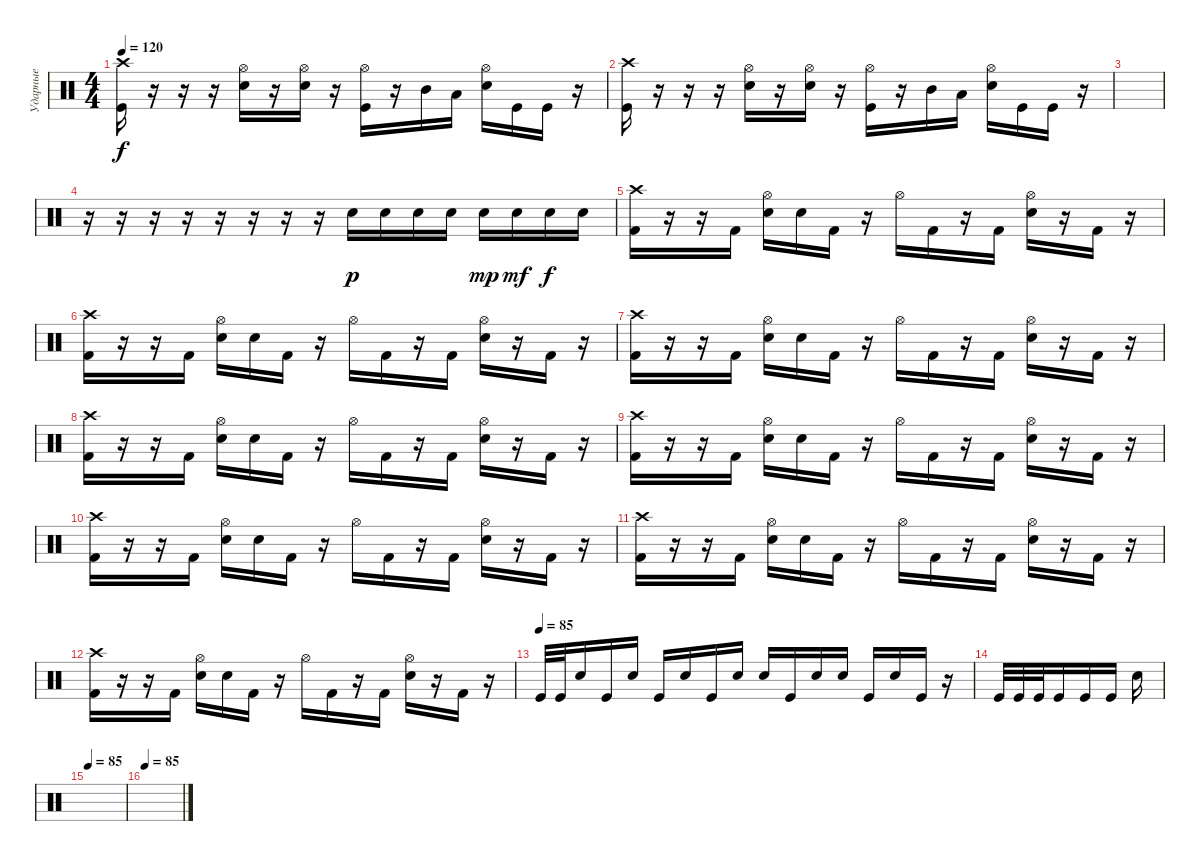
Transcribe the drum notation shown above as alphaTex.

\track ("Ударные" "Ударные") {instrument percussion}
\staff {score}
\articulation defaults
\ts (4 4)
\tempo 120
\clef neutral
\ks c
("Crash high (hit)" "Kick (hit)").16{dy f} r.16 r.16 r.16 ("Hi-Hat (open)" "Electric Snare (hit)").16 r.16 ("Hi-Hat (open)" "Electric Snare (hit)").16 r.16 ("Hi-Hat (open)" "Kick (hit)").16 r.16 "Mid Tom (hit)".16 "Low Tom (hit)".16 ("Hi-Hat (open)" "Electric Snare (hit)").16 "Kick (hit)".16 "Kick (hit)".16 r.16 |
("Crash high (hit)" "Kick (hit)").16 r.16 r.16 r.16 ("Hi-Hat (open)" "Electric Snare (hit)").16 r.16 ("Hi-Hat (open)" "Electric Snare (hit)").16 r.16 ("Hi-Hat (open)" "Kick (hit)").16 r.16 "Mid Tom (hit)".16 "Low Tom (hit)".16 ("Hi-Hat (open)" "Electric Snare (hit)").16 "Kick (hit)".16 "Kick (hit)".16 r.16 |
|
r.16 r.16 r.16 r.16 r.16 r.16 r.16 r.16 "Electric Snare (hit)".16{dy p} "Electric Snare (hit)".16 "Electric Snare (hit)".16 "Electric Snare (hit)".16 "Electric Snare (hit)".16{dy mp} "Electric Snare (hit)".16{dy mf} "Electric Snare (hit)".16{dy f} "Electric Snare (hit)".16 |
("Crash high (hit)" "Kick (hit) 2").16 r.16 r.16 "Kick (hit) 2".16 ("Hi-Hat (open)" "Electric Snare (hit)").16 "Electric Snare (hit)".16 "Kick (hit) 2".16 r.16 "Hi-Hat (open)".16 "Kick (hit) 2".16 r.16 "Kick (hit) 2".16 ("Hi-Hat (open)" "Electric Snare (hit)").16 r.16 "Kick (hit) 2".16 r.16 |
("Crash high (hit)" "Kick (hit) 2").16 r.16 r.16 "Kick (hit) 2".16 ("Hi-Hat (open)" "Electric Snare (hit)").16 "Electric Snare (hit)".16 "Kick (hit) 2".16 r.16 "Hi-Hat (open)".16 "Kick (hit) 2".16 r.16 "Kick (hit) 2".16 ("Hi-Hat (open)" "Electric Snare (hit)").16 r.16 "Kick (hit) 2".16 r.16 |
("Crash high (hit)" "Kick (hit) 2").16 r.16 r.16 "Kick (hit) 2".16 ("Hi-Hat (open)" "Electric Snare (hit)").16 "Electric Snare (hit)".16 "Kick (hit) 2".16 r.16 "Hi-Hat (open)".16 "Kick (hit) 2".16 r.16 "Kick (hit) 2".16 ("Hi-Hat (open)" "Electric Snare (hit)").16 r.16 "Kick (hit) 2".16 r.16 |
("Crash high (hit)" "Kick (hit) 2").16 r.16 r.16 "Kick (hit) 2".16 ("Hi-Hat (open)" "Electric Snare (hit)").16 "Electric Snare (hit)".16 "Kick (hit) 2".16 r.16 "Hi-Hat (open)".16 "Kick (hit) 2".16 r.16 "Kick (hit) 2".16 ("Hi-Hat (open)" "Electric Snare (hit)").16 r.16 "Kick (hit) 2".16 r.16 |
("Crash high (hit)" "Kick (hit) 2").16 r.16 r.16 "Kick (hit) 2".16 ("Hi-Hat (open)" "Electric Snare (hit)").16 "Electric Snare (hit)".16 "Kick (hit) 2".16 r.16 "Hi-Hat (open)".16 "Kick (hit) 2".16 r.16 "Kick (hit) 2".16 ("Hi-Hat (open)" "Electric Snare (hit)").16 r.16 "Kick (hit) 2".16 r.16 |
("Crash high (hit)" "Kick (hit) 2").16 r.16 r.16 "Kick (hit) 2".16 ("Hi-Hat (open)" "Electric Snare (hit)").16 "Electric Snare (hit)".16 "Kick (hit) 2".16 r.16 "Hi-Hat (open)".16 "Kick (hit) 2".16 r.16 "Kick (hit) 2".16 ("Hi-Hat (open)" "Electric Snare (hit)").16 r.16 "Kick (hit) 2".16 r.16 |
("Crash high (hit)" "Kick (hit) 2").16 r.16 r.16 "Kick (hit) 2".16 ("Hi-Hat (open)" "Electric Snare (hit)").16 "Electric Snare (hit)".16 "Kick (hit) 2".16 r.16 "Hi-Hat (open)".16 "Kick (hit) 2".16 r.16 "Kick (hit) 2".16 ("Hi-Hat (open)" "Electric Snare (hit)").16 r.16 "Kick (hit) 2".16 r.16 |
("Crash high (hit)" "Kick (hit) 2").16 r.16 r.16 "Kick (hit) 2".16 ("Hi-Hat (open)" "Electric Snare (hit)").16 "Electric Snare (hit)".16 "Kick (hit) 2".16 r.16 "Hi-Hat (open)".16 "Kick (hit) 2".16 r.16 "Kick (hit) 2".16 ("Hi-Hat (open)" "Electric Snare (hit)").16 r.16 "Kick (hit) 2".16 r.16 |
\tempo (85)
"Kick (hit)".32 "Kick (hit)".32 "Electric Snare (hit)".16 "Kick (hit)".16 "Electric Snare (hit)".16 "Kick (hit)".16 "Electric Snare (hit)".16 "Kick (hit)".16 "Electric Snare (hit)".16 "Electric Snare (hit)".16 "Kick (hit)".16 "Electric Snare (hit)".16 "Electric Snare (hit)".16 "Kick (hit)".16 "Electric Snare (hit)".16 "Kick (hit)".16 r.16 |
"Kick (hit)".32 "Kick (hit)".32 "Kick (hit)".32 "Kick (hit)".16 "Kick (hit)".16 "Kick (hit)".16 "Electric Snare (hit)".16 |
\tempo 85
|
\tempo 85
